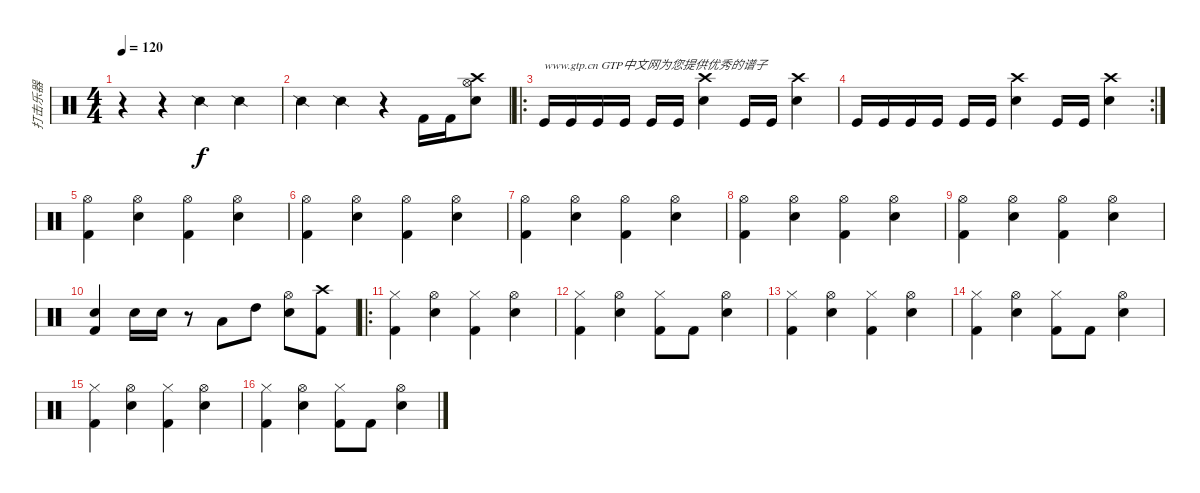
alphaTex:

\track ("打击乐器" "打击乐器") {instrument percussion}
\staff {score}
\articulation defaults
\ts (4 4)
\tempo 120
\clef neutral
\ks c
r.4{dy f} r.4 "Snare (side stick) 2".4 "Snare (side stick) 2".4 |
"Snare (side stick) 2".4 "Snare (side stick) 2".4 r.4 "Kick (hit) 2".16 "Kick (hit) 2".16 ("Electric Snare (hit)" "Hi-Hat (open)" "Crash high (hit)").8 |
\ro "Kick (hit)".16{txt "www.gtp.cn GTP中文网为您提供优秀的谱子"} "Kick (hit)".16 "Kick (hit)".16 "Kick (hit)".16 "Kick (hit)".16 "Kick (hit)".16
("Snare (hit) 2" "Crash high (hit)").4 "Kick (hit)".16 "Kick (hit)".16 ("Snare (hit) 2" "Crash high (hit)").4 |
\rc 2 "Kick (hit)".16 "Kick (hit)".16 "Kick (hit)".16 "Kick (hit)".16 "Kick (hit)".16 "Kick (hit)".16
("Snare (hit) 2" "Crash high (hit)").4 "Kick (hit)".16 "Kick (hit)".16 ("Snare (hit) 2" "Crash high (hit)").4 |
("Kick (hit) 2" "Hi-Hat (open)").4 ("Hi-Hat (open)" "Electric Snare (hit)").4 ("Kick (hit) 2" "Hi-Hat (open)").4 ("Electric Snare (hit)" "Hi-Hat (open)").4 |
("Kick (hit) 2" "Hi-Hat (open)").4 ("Hi-Hat (open)" "Electric Snare (hit)").4 ("Kick (hit) 2" "Hi-Hat (open)").4 ("Electric Snare (hit)" "Hi-Hat (open)").4 |
("Kick (hit) 2" "Hi-Hat (open)").4 ("Hi-Hat (open)" "Electric Snare (hit)").4 ("Kick (hit) 2" "Hi-Hat (open)").4 ("Electric Snare (hit)" "Hi-Hat (open)").4 |
("Kick (hit) 2" "Hi-Hat (open)").4 ("Hi-Hat (open)" "Electric Snare (hit)").4 ("Kick (hit) 2" "Hi-Hat (open)").4 ("Electric Snare (hit)" "Hi-Hat (open)").4 |
("Kick (hit) 2" "Hi-Hat (open)").4 ("Hi-Hat (open)" "Electric Snare (hit)").4 ("Kick (hit) 2" "Hi-Hat (open)").4 ("Electric Snare (hit)" "Hi-Hat (open)").4 |
("Kick (hit) 2" "Electric Snare (hit)").4 "Electric Snare (hit)".16 "Electric Snare (hit)".16 r.8 "Low Tom (hit)".8 "High Tom (hit)".8 ("Electric Snare (hit)" "Hi-Hat (open)").8 ("Kick (hit) 2" "Crash high (hit)").8 |
\ro
("Kick (hit) 2" "Hi-Hat (closed)").4 ("Hi-Hat (open)" "Electric Snare (hit)").4 ("Kick (hit) 2" "Hi-Hat (closed)").4 ("Electric Snare (hit)" "Hi-Hat (open)").4 |
("Kick (hit) 2" "Hi-Hat (closed)").4 ("Hi-Hat (open)" "Electric Snare (hit)").4 ("Kick (hit) 2" "Hi-Hat (closed)").8 "Kick (hit) 2".8 ("Electric Snare (hit)" "Hi-Hat (open)").4 |
("Kick (hit) 2" "Hi-Hat (closed)").4 ("Hi-Hat (open)" "Electric Snare (hit)").4 ("Kick (hit) 2" "Hi-Hat (closed)").4 ("Electric Snare (hit)" "Hi-Hat (open)").4 |
("Kick (hit) 2" "Hi-Hat (closed)").4 ("Hi-Hat (open)" "Electric Snare (hit)").4 ("Kick (hit) 2" "Hi-Hat (closed)").8 "Kick (hit) 2".8 ("Electric Snare (hit)" "Hi-Hat (open)").4 |
("Kick (hit) 2" "Hi-Hat (closed)").4 ("Hi-Hat (open)" "Electric Snare (hit)").4 ("Kick (hit) 2" "Hi-Hat (closed)").4 ("Electric Snare (hit)" "Hi-Hat (open)").4 |
("Kick (hit) 2" "Hi-Hat (closed)").4 ("Hi-Hat (open)" "Electric Snare (hit)").4 ("Kick (hit) 2" "Hi-Hat (closed)").8 "Kick (hit) 2".8 ("Electric Snare (hit)" "Hi-Hat (open)").4
